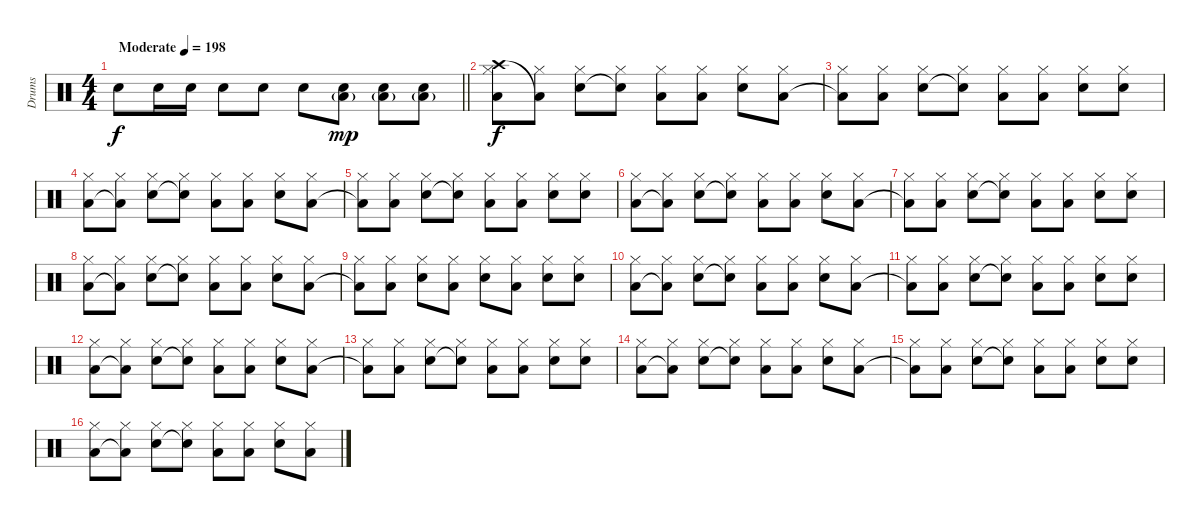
\track ("Drums" "Drums") {instrument percussion}
\staff {score}
\articulation defaults
\ts (4 4)
\tempo (198 "Moderate")
\clef neutral
\barLineRight lightlight
\ks c "Snare (hit) 2".8{dy f} "Snare (hit) 2".16 "Snare (hit) 2".16 "Snare (hit) 2".8 "Snare (hit) 2".8 "Snare (hit) 2".8
("Snare (hit) 2" "Low Floor Tom (hit)"{g}).8{dy mp} ("Snare (hit) 2" "Low Floor Tom (hit)"{g}).8 ("Snare (hit) 2" "Low Floor Tom (hit)"{g}).8 |
("Crash high (hit)" "Low Floor Tom (hit)" "Hi-Hat (closed)").8{dy f} ("Low Floor Tom (hit)"{t} "Hi-Hat (closed)").8 ("Snare (hit) 2" "Hi-Hat (closed)").8 ("Snare (hit) 2"{t} "Hi-Hat (closed)").8 ("Low Floor Tom (hit)" "Hi-Hat (closed)").8 ("Low Floor Tom (hit)" "Hi-Hat (closed)").8 ("Snare (hit) 2" "Hi-Hat (closed)").8 ("Low Floor Tom (hit)" "Hi-Hat (closed)").8 |
("Low Floor Tom (hit)"{t} "Hi-Hat (closed)").8 ("Low Floor Tom (hit)" "Hi-Hat (closed)").8 ("Snare (hit) 2" "Hi-Hat (closed)").8 ("Snare (hit) 2"{t} "Hi-Hat (closed)").8 ("Low Floor Tom (hit)" "Hi-Hat (closed)").8 ("Low Floor Tom (hit)" "Hi-Hat (closed)").8 ("Snare (hit) 2" "Hi-Hat (closed)").8 ("Snare (hit) 2" "Hi-Hat (closed)").8 |
("Low Floor Tom (hit)" "Hi-Hat (closed)").8 ("Low Floor Tom (hit)"{t} "Hi-Hat (closed)").8 ("Snare (hit) 2" "Hi-Hat (closed)").8 ("Snare (hit) 2"{t} "Hi-Hat (closed)").8 ("Low Floor Tom (hit)" "Hi-Hat (closed)").8 ("Low Floor Tom (hit)" "Hi-Hat (closed)").8 ("Snare (hit) 2" "Hi-Hat (closed)").8 ("Low Floor Tom (hit)" "Hi-Hat (closed)").8 |
("Low Floor Tom (hit)"{t} "Hi-Hat (closed)").8 ("Low Floor Tom (hit)" "Hi-Hat (closed)").8 ("Snare (hit) 2" "Hi-Hat (closed)").8 ("Snare (hit) 2"{t} "Hi-Hat (closed)").8 ("Low Floor Tom (hit)" "Hi-Hat (closed)").8 ("Low Floor Tom (hit)" "Hi-Hat (closed)").8 ("Snare (hit) 2" "Hi-Hat (closed)").8 ("Snare (hit) 2" "Hi-Hat (closed)").8 |
("Low Floor Tom (hit)" "Hi-Hat (closed)").8 ("Low Floor Tom (hit)"{t} "Hi-Hat (closed)").8 ("Snare (hit) 2" "Hi-Hat (closed)").8 ("Snare (hit) 2"{t} "Hi-Hat (closed)").8 ("Low Floor Tom (hit)" "Hi-Hat (closed)").8 ("Low Floor Tom (hit)" "Hi-Hat (closed)").8 ("Snare (hit) 2" "Hi-Hat (closed)").8 ("Low Floor Tom (hit)" "Hi-Hat (closed)").8 |
("Low Floor Tom (hit)"{t} "Hi-Hat (closed)").8 ("Low Floor Tom (hit)" "Hi-Hat (closed)").8 ("Snare (hit) 2" "Hi-Hat (closed)").8 ("Snare (hit) 2"{t} "Hi-Hat (closed)").8 ("Low Floor Tom (hit)" "Hi-Hat (closed)").8 ("Low Floor Tom (hit)" "Hi-Hat (closed)").8 ("Snare (hit) 2" "Hi-Hat (closed)").8 ("Snare (hit) 2" "Hi-Hat (closed)").8 |
("Low Floor Tom (hit)" "Hi-Hat (closed)").8 ("Low Floor Tom (hit)"{t} "Hi-Hat (closed)").8 ("Snare (hit) 2" "Hi-Hat (closed)").8 ("Snare (hit) 2"{t} "Hi-Hat (closed)").8 ("Low Floor Tom (hit)" "Hi-Hat (closed)").8 ("Low Floor Tom (hit)" "Hi-Hat (closed)").8 ("Snare (hit) 2" "Hi-Hat (closed)").8 ("Low Floor Tom (hit)" "Hi-Hat (closed)").8 |
("Low Floor Tom (hit)"{t} "Hi-Hat (closed)").8 ("Low Floor Tom (hit)" "Hi-Hat (closed)").8 ("Snare (hit) 2" "Hi-Hat (closed)").8 ("Low Floor Tom (hit)" "Hi-Hat (closed)").8 ("Snare (hit) 2" "Hi-Hat (closed)").8 ("Low Floor Tom (hit)" "Hi-Hat (closed)").8 ("Snare (hit) 2" "Hi-Hat (closed)").8 ("Snare (hit) 2" "Hi-Hat (closed)").8 |
("Low Floor Tom (hit)" "Hi-Hat (closed)").8 ("Low Floor Tom (hit)"{t} "Hi-Hat (closed)").8 ("Snare (hit) 2" "Hi-Hat (closed)").8 ("Snare (hit) 2"{t} "Hi-Hat (closed)").8 ("Low Floor Tom (hit)" "Hi-Hat (closed)").8 ("Low Floor Tom (hit)" "Hi-Hat (closed)").8 ("Snare (hit) 2" "Hi-Hat (closed)").8 ("Low Floor Tom (hit)" "Hi-Hat (closed)").8 |
("Low Floor Tom (hit)"{t} "Hi-Hat (closed)").8 ("Low Floor Tom (hit)" "Hi-Hat (closed)").8 ("Snare (hit) 2" "Hi-Hat (closed)").8 ("Snare (hit) 2"{t} "Hi-Hat (closed)").8 ("Low Floor Tom (hit)" "Hi-Hat (closed)").8 ("Low Floor Tom (hit)" "Hi-Hat (closed)").8 ("Snare (hit) 2" "Hi-Hat (closed)").8 ("Snare (hit) 2" "Hi-Hat (closed)").8 |
("Low Floor Tom (hit)" "Hi-Hat (closed)").8 ("Low Floor Tom (hit)"{t} "Hi-Hat (closed)").8 ("Snare (hit) 2" "Hi-Hat (closed)").8 ("Snare (hit) 2"{t} "Hi-Hat (closed)").8 ("Low Floor Tom (hit)" "Hi-Hat (closed)").8 ("Low Floor Tom (hit)" "Hi-Hat (closed)").8 ("Snare (hit) 2" "Hi-Hat (closed)").8 ("Low Floor Tom (hit)" "Hi-Hat (closed)").8 |
("Low Floor Tom (hit)"{t} "Hi-Hat (closed)").8 ("Low Floor Tom (hit)" "Hi-Hat (closed)").8 ("Snare (hit) 2" "Hi-Hat (closed)").8 ("Snare (hit) 2"{t} "Hi-Hat (closed)").8 ("Low Floor Tom (hit)" "Hi-Hat (closed)").8 ("Low Floor Tom (hit)" "Hi-Hat (closed)").8 ("Snare (hit) 2" "Hi-Hat (closed)").8 ("Snare (hit) 2" "Hi-Hat (closed)").8 |
("Low Floor Tom (hit)" "Hi-Hat (closed)").8 ("Low Floor Tom (hit)"{t} "Hi-Hat (closed)").8 ("Snare (hit) 2" "Hi-Hat (closed)").8 ("Snare (hit) 2"{t} "Hi-Hat (closed)").8 ("Low Floor Tom (hit)" "Hi-Hat (closed)").8 ("Low Floor Tom (hit)" "Hi-Hat (closed)").8 ("Snare (hit) 2" "Hi-Hat (closed)").8 ("Low Floor Tom (hit)" "Hi-Hat (closed)").8 |
("Low Floor Tom (hit)"{t} "Hi-Hat (closed)").8 ("Low Floor Tom (hit)" "Hi-Hat (closed)").8 ("Snare (hit) 2" "Hi-Hat (closed)").8 ("Snare (hit) 2"{t} "Hi-Hat (closed)").8 ("Low Floor Tom (hit)" "Hi-Hat (closed)").8 ("Low Floor Tom (hit)" "Hi-Hat (closed)").8 ("Snare (hit) 2" "Hi-Hat (closed)").8 ("Snare (hit) 2" "Hi-Hat (closed)").8 |
("Low Floor Tom (hit)" "Hi-Hat (closed)").8 ("Low Floor Tom (hit)"{t} "Hi-Hat (closed)").8 ("Snare (hit) 2" "Hi-Hat (closed)").8 ("Snare (hit) 2"{t} "Hi-Hat (closed)").8 ("Low Floor Tom (hit)" "Hi-Hat (closed)").8 ("Low Floor Tom (hit)" "Hi-Hat (closed)").8 ("Snare (hit) 2" "Hi-Hat (closed)").8 ("Low Floor Tom (hit)" "Hi-Hat (closed)").8
